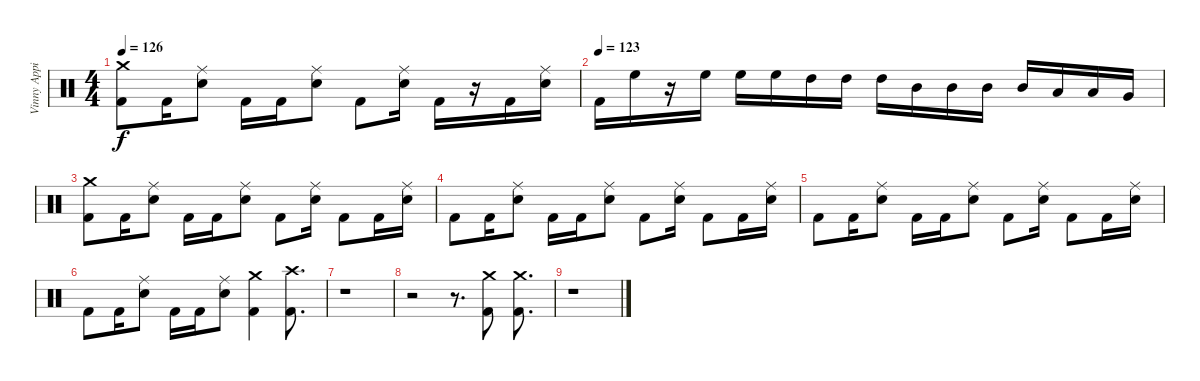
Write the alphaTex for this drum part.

\track ("Vinny Appice" "Vinny Appi") {instrument percussion}
\staff {score}
\articulation defaults
\ts (4 4)
\tempo 126
\clef neutral
\ks aminor
("Crash medium (hit)" "Kick (hit) 2").8{dy f} "Kick (hit) 2".16 ("Snare (hit) 2" "Ride (middle)").8 "Kick (hit) 2".16 "Kick (hit) 2".16 ("Snare (hit) 2" "Ride (middle)").8 "Kick (hit) 2".8 ("Snare (hit) 2" "Ride (middle)").16 "Kick (hit) 2".16 r.16 "Kick (hit) 2".16 ("Snare (hit) 2" "Ride (middle)").16 |
\tempo (123)
"Kick (hit) 2".16 "High Floor Tom (hit)".16 r.16 "High Floor Tom (hit)".16 "High Floor Tom (hit)".16 "High Floor Tom (hit)".16 "High Tom (hit)".16 "High Tom (hit)".16 "High Tom (hit)".16 "Mid Tom (hit)".16 "Mid Tom (hit)".16 "Mid Tom (hit)".16 "Mid Tom (hit)".16 "Low Tom (hit)".16 "Low Tom (hit)".16 "Very Low Tom (hit)".16 |
("Crash medium (hit)" "Kick (hit) 2").8 "Kick (hit) 2".16 ("Snare (hit) 2" "Ride (middle)").8 "Kick (hit) 2".16 "Kick (hit) 2".16 ("Snare (hit) 2" "Ride (middle)").8 "Kick (hit) 2".8 ("Snare (hit) 2" "Ride (middle)").16 "Kick (hit) 2".8 "Kick (hit) 2".16 ("Snare (hit) 2" "Ride (middle)").16 |
"Kick (hit) 2".8 "Kick (hit) 2".16 ("Snare (hit) 2" "Ride (middle)").8 "Kick (hit) 2".16 "Kick (hit) 2".16 ("Snare (hit) 2" "Ride (middle)").8 "Kick (hit) 2".8 ("Snare (hit) 2" "Ride (middle)").16 "Kick (hit) 2".8 "Kick (hit) 2".16 ("Snare (hit) 2" "Ride (middle)").16 |
"Kick (hit) 2".8 "Kick (hit) 2".16 ("Snare (hit) 2" "Ride (middle)").8 "Kick (hit) 2".16 "Kick (hit) 2".16 ("Snare (hit) 2" "Ride (middle)").8 "Kick (hit) 2".8 ("Snare (hit) 2" "Ride (middle)").16 "Kick (hit) 2".8 "Kick (hit) 2".16 ("Snare (hit) 2" "Ride (middle)").16 |
"Kick (hit) 2".8 "Kick (hit) 2".16 ("Snare (hit) 2" "Ride (middle)").8 "Kick (hit) 2".16 "Kick (hit) 2".16 ("Snare (hit) 2" "Ride (middle)").8 ("Crash medium (hit)" "Kick (hit) 2").4 ("Kick (hit) 2" "Crash high (hit)").8{d} |
r.1 |
r.2 r.8{d} ("Crash medium (hit)" "Kick (hit) 2").8 ("Kick (hit) 2" "Crash medium (hit)").8{d} |
r.1
